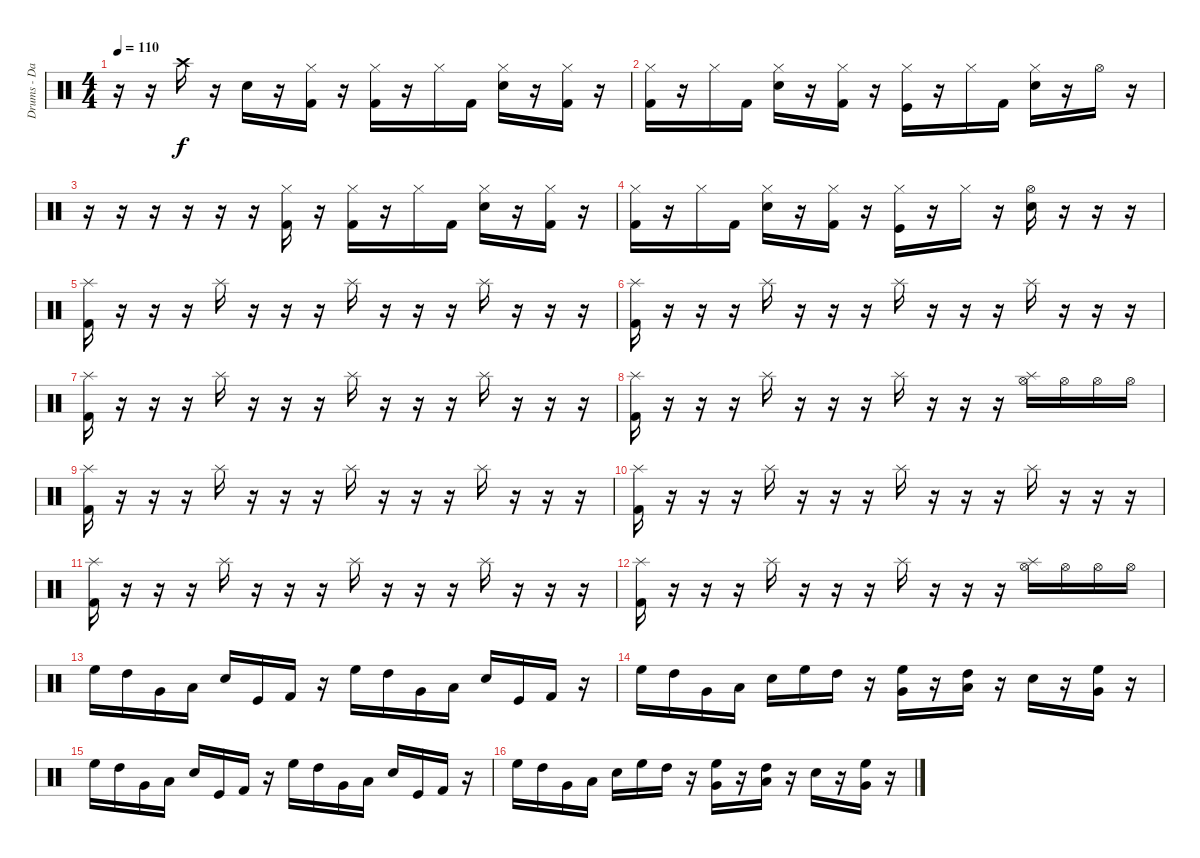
\track ("Drums - David" "Drums - Da") {instrument percussion}
\staff {score}
\articulation defaults
\ts (4 4)
\tempo 110
\clef neutral
\ks c
r.16{dy f} r.16 "Crash high (hit)".16 r.16 "Snare (hit) 2".16 r.16 ("Hi-Hat (closed)" "Kick (hit) 2").16 r.16 ("Hi-Hat (closed)" "Kick (hit) 2").16 r.16 "Hi-Hat (closed)".16 "Kick (hit) 2".16 ("Hi-Hat (closed)" "Snare (hit) 2").16 r.16 ("Hi-Hat (closed)" "Kick (hit) 2").16 r.16 |
("Hi-Hat (closed)" "Kick (hit) 2").16 r.16 "Hi-Hat (closed)".16 "Kick (hit) 2".16 ("Hi-Hat (closed)" "Snare (hit) 2").16 r.16 ("Hi-Hat (closed)" "Kick (hit) 2").16 r.16 ("Hi-Hat (closed)" "Kick (hit)").16 r.16 "Hi-Hat (closed)".16 "Kick (hit) 2".16 ("Hi-Hat (closed)" "Snare (hit) 2").16 r.16 "Hi-Hat (open)".16 r.16 |
r.16 r.16 r.16 r.16 r.16 r.16 ("Hi-Hat (closed)" "Kick (hit) 2").16 r.16 ("Hi-Hat (closed)" "Kick (hit) 2").16 r.16 "Hi-Hat (closed)".16 "Kick (hit) 2".16 ("Hi-Hat (closed)" "Snare (hit) 2").16 r.16 ("Hi-Hat (closed)" "Kick (hit) 2").16 r.16 |
("Hi-Hat (closed)" "Kick (hit) 2").16 r.16 "Hi-Hat (closed)".16 "Kick (hit) 2".16 ("Hi-Hat (closed)" "Snare (hit) 2").16 r.16 ("Hi-Hat (closed)" "Kick (hit) 2").16 r.16 ("Hi-Hat (closed)" "Kick (hit)").16 r.16 "Hi-Hat (closed)".16 r.16 ("Hi-Hat (open)" "Snare (hit) 2").16 r.16 r.16 r.16 |
("Splash (hit)" "Kick (hit) 2").16 r.16 r.16 r.16 "Splash (hit)".16 r.16 r.16 r.16 "Splash (hit)".16 r.16 r.16 r.16 "Splash (hit)".16 r.16 r.16 r.16 |
("Splash (hit)" "Kick (hit) 2").16 r.16 r.16 r.16 "Splash (hit)".16 r.16 r.16 r.16 "Splash (hit)".16 r.16 r.16 r.16 "Splash (hit)".16 r.16 r.16 r.16 |
("Splash (hit)" "Kick (hit) 2").16 r.16 r.16 r.16 "Splash (hit)".16 r.16 r.16 r.16 "Splash (hit)".16 r.16 r.16 r.16 "Splash (hit)".16 r.16 r.16 r.16 |
("Splash (hit)" "Kick (hit) 2").16 r.16 r.16 r.16 "Splash (hit)".16 r.16 r.16 r.16 "Splash (hit)".16 r.16 r.16 r.16 ("Splash (hit)" "Hi-Hat (open)").16 "Hi-Hat (open)".16 "Hi-Hat (open)".16 "Hi-Hat (open)".16 |
("Splash (hit)" "Kick (hit) 2").16 r.16 r.16 r.16 "Splash (hit)".16 r.16 r.16 r.16 "Splash (hit)".16 r.16 r.16 r.16 "Splash (hit)".16 r.16 r.16 r.16 |
("Splash (hit)" "Kick (hit) 2").16 r.16 r.16 r.16 "Splash (hit)".16 r.16 r.16 r.16 "Splash (hit)".16 r.16 r.16 r.16 "Splash (hit)".16 r.16 r.16 r.16 |
("Splash (hit)" "Kick (hit) 2").16 r.16 r.16 r.16 "Splash (hit)".16 r.16 r.16 r.16 "Splash (hit)".16 r.16 r.16 r.16 "Splash (hit)".16 r.16 r.16 r.16 |
("Splash (hit)" "Kick (hit) 2").16 r.16 r.16 r.16 "Splash (hit)".16 r.16 r.16 r.16 "Splash (hit)".16 r.16 r.16 r.16 ("Splash (hit)" "Hi-Hat (open)").16 "Hi-Hat (open)".16 "Hi-Hat (open)".16 "Hi-Hat (open)".16 |
"High Floor Tom (hit)".16 "High Tom (hit)".16 "Very Low Tom (hit)".16 "Low Floor Tom (hit)".16 "Snare (hit) 2".16 "Kick (hit)".16 "Kick (hit) 2".16 r.16 "High Floor Tom (hit)".16 "High Tom (hit)".16 "Very Low Tom (hit)".16 "Low Floor Tom (hit)".16 "Snare (hit) 2".16 "Kick (hit)".16 "Kick (hit) 2".16 r.16 |
"High Floor Tom (hit)".16 "High Tom (hit)".16 "Very Low Tom (hit)".16 "Low Floor Tom (hit)".16 "Snare (hit) 2".16 "High Floor Tom (hit)".16 "High Tom (hit)".16 r.16 ("High Floor Tom (hit)" "Very Low Tom (hit)").16 r.16 ("High Tom (hit)" "Low Floor Tom (hit)").16 r.16 "Snare (hit) 2".16 r.16 ("High Floor Tom (hit)" "Very Low Tom (hit)").16 r.16 |
"High Floor Tom (hit)".16 "High Tom (hit)".16 "Very Low Tom (hit)".16 "Low Floor Tom (hit)".16 "Snare (hit) 2".16 "Kick (hit)".16 "Kick (hit) 2".16 r.16 "High Floor Tom (hit)".16 "High Tom (hit)".16 "Very Low Tom (hit)".16 "Low Floor Tom (hit)".16 "Snare (hit) 2".16 "Kick (hit)".16 "Kick (hit) 2".16 r.16 |
"High Floor Tom (hit)".16 "High Tom (hit)".16 "Very Low Tom (hit)".16 "Low Floor Tom (hit)".16 "Snare (hit) 2".16 "High Floor Tom (hit)".16 "High Tom (hit)".16 r.16 ("High Floor Tom (hit)" "Very Low Tom (hit)").16 r.16 ("High Tom (hit)" "Low Floor Tom (hit)").16 r.16 "Snare (hit) 2".16 r.16 ("High Floor Tom (hit)" "Very Low Tom (hit)").16 r.16
